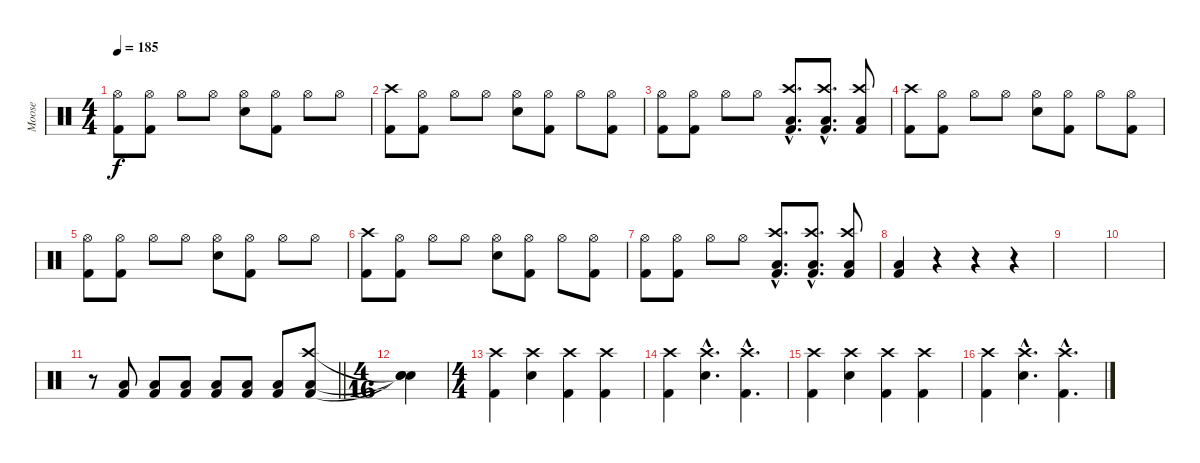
\track ("Moose" "Moose") {instrument percussion}
\staff {score}
\articulation defaults
\ts (4 4)
\tempo 185
\clef neutral
\ks c
("Hi-Hat (open)" "Kick (hit) 2").8{dy f} ("Hi-Hat (open)" "Kick (hit) 2").8 "Hi-Hat (open)".8 "Hi-Hat (open)".8 ("Hi-Hat (open)" "Snare (hit) 2").8 ("Hi-Hat (open)" "Kick (hit) 2").8 "Hi-Hat (open)".8 "Hi-Hat (open)".8 |
("Crash high (hit)" "Kick (hit) 2").8 ("Hi-Hat (open)" "Kick (hit) 2").8 "Hi-Hat (open)".8 "Hi-Hat (open)".8 ("Hi-Hat (open)" "Snare (hit) 2").8 ("Hi-Hat (open)" "Kick (hit) 2").8 "Hi-Hat (open)".8 ("Hi-Hat (open)" "Kick (hit) 2").8 |
("Hi-Hat (open)" "Kick (hit) 2").8 ("Hi-Hat (open)" "Kick (hit) 2").8 "Hi-Hat (open)".8 "Hi-Hat (open)".8 ("Crash high (hit)"{hac} "Low Tom (hit)"{hac} "Kick (hit) 2"{hac}).8{d} ("Crash high (hit)"{hac} "Low Tom (hit)"{hac} "Kick (hit) 2"{hac}).8{d} ("Crash high (hit)" "Low Tom (hit)" "Kick (hit) 2").8 |
("Crash high (hit)" "Kick (hit) 2").8 ("Hi-Hat (open)" "Kick (hit) 2").8 "Hi-Hat (open)".8 "Hi-Hat (open)".8 ("Hi-Hat (open)" "Snare (hit) 2").8 ("Hi-Hat (open)" "Kick (hit) 2").8 "Hi-Hat (open)".8 ("Hi-Hat (open)" "Kick (hit) 2").8 |
("Hi-Hat (open)" "Kick (hit) 2").8 ("Hi-Hat (open)" "Kick (hit) 2").8 "Hi-Hat (open)".8 "Hi-Hat (open)".8 ("Hi-Hat (open)" "Snare (hit) 2").8 ("Hi-Hat (open)" "Kick (hit) 2").8 "Hi-Hat (open)".8 "Hi-Hat (open)".8 |
("Crash high (hit)" "Kick (hit) 2").8 ("Hi-Hat (open)" "Kick (hit) 2").8 "Hi-Hat (open)".8 "Hi-Hat (open)".8 ("Hi-Hat (open)" "Snare (hit) 2").8 ("Hi-Hat (open)" "Kick (hit) 2").8 "Hi-Hat (open)".8 ("Hi-Hat (open)" "Kick (hit) 2").8 |
("Hi-Hat (open)" "Kick (hit) 2").8 ("Hi-Hat (open)" "Kick (hit) 2").8 "Hi-Hat (open)".8 "Hi-Hat (open)".8 ("Crash high (hit)"{hac} "Low Tom (hit)"{hac} "Kick (hit) 2"{hac}).8{d} ("Crash high (hit)"{hac} "Low Tom (hit)"{hac} "Kick (hit) 2"{hac}).8{d} ("Crash high (hit)" "Low Tom (hit)" "Kick (hit) 2").8 |
("Low Tom (hit)" "Kick (hit) 2").4 r.4 r.4 r.4 |
|
|
\barLineRight lightlight
r.8 ("Low Floor Tom (hit)" "Kick (hit) 2").8 ("Low Floor Tom (hit)" "Kick (hit) 2").8 ("Low Floor Tom (hit)" "Kick (hit) 2").8 ("Low Floor Tom (hit)" "Kick (hit) 2").8 ("Low Floor Tom (hit)" "Kick (hit) 2").8 ("Low Floor Tom (hit)" "Kick (hit) 2").8 ("Crash high (hit)" "Low Floor Tom (hit)" "Kick (hit) 2").8 |
\ts (4 16)
("Snare (hit)"{t} "Snare (hit)"{t} "Snare (hit)"{t}).4 |
\ts (4 4)
("Crash high (hit)" "Kick (hit) 2").4 ("Crash high (hit)" "Snare (hit) 2").4 ("Crash high (hit)" "Kick (hit) 2").4 ("Crash high (hit)" "Kick (hit) 2").4 |
("Crash high (hit)" "Kick (hit) 2").4 ("Crash high (hit)"{hac} "Snare (hit) 2"{hac}).4{d} ("Crash high (hit)"{hac} "Kick (hit) 2"{hac}).4{d} |
("Crash high (hit)" "Kick (hit) 2").4 ("Crash high (hit)" "Snare (hit) 2").4 ("Crash high (hit)" "Kick (hit) 2").4 ("Crash high (hit)" "Kick (hit) 2").4 |
("Crash high (hit)" "Kick (hit) 2").4 ("Crash high (hit)"{hac} "Snare (hit) 2"{hac}).4{d} ("Crash high (hit)"{hac} "Kick (hit) 2"{hac}).4{d}
